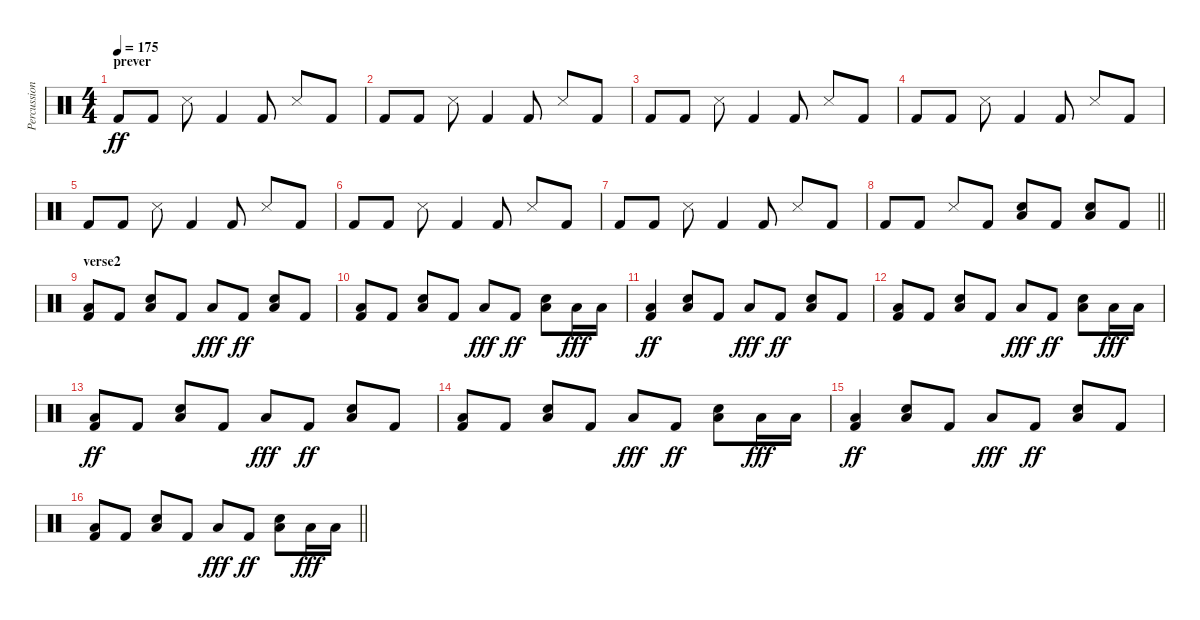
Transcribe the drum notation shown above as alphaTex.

\track ("Percussion" "Percussion") {instrument percussion}
\staff {score}
\articulation defaults
\ts (4 4)
\section ("" "prever")
\tempo 175
\clef neutral
\ks c "Kick (hit) 2".8{dy ff} "Kick (hit) 2".8 "Snare (side stick) 3".8 "Kick (hit) 2".4 "Kick (hit) 2".8 "Snare (side stick) 3".8 "Kick (hit) 2".8
|
"Kick (hit) 2".8 "Kick (hit) 2".8 "Snare (side stick) 3".8 "Kick (hit) 2".4 "Kick (hit) 2".8 "Snare (side stick) 3".8 "Kick (hit) 2".8 |
"Kick (hit) 2".8 "Kick (hit) 2".8 "Snare (side stick) 3".8 "Kick (hit) 2".4 "Kick (hit) 2".8 "Snare (side stick) 3".8 "Kick (hit) 2".8 |
"Kick (hit) 2".8 "Kick (hit) 2".8 "Snare (side stick) 3".8 "Kick (hit) 2".4 "Kick (hit) 2".8 "Snare (side stick) 3".8 "Kick (hit) 2".8 |
"Kick (hit) 2".8 "Kick (hit) 2".8 "Snare (side stick) 3".8 "Kick (hit) 2".4 "Kick (hit) 2".8 "Snare (side stick) 3".8 "Kick (hit) 2".8 |
"Kick (hit) 2".8 "Kick (hit) 2".8 "Snare (side stick) 3".8 "Kick (hit) 2".4 "Kick (hit) 2".8 "Snare (side stick) 3".8 "Kick (hit) 2".8 |
"Kick (hit) 2".8 "Kick (hit) 2".8 "Snare (side stick) 3".8 "Kick (hit) 2".4 "Kick (hit) 2".8 "Snare (side stick) 3".8 "Kick (hit) 2".8 |
\barLineRight lightlight "Kick (hit) 2".8 "Kick (hit) 2".8 "Snare (side stick) 3".8 "Kick (hit) 2".8
("Low Tom (hit)" "Snare (hit) 2").8 "Kick (hit) 2".8 ("Low Tom (hit)" "Snare (hit) 2").8 "Kick (hit) 2".8 |
\section ("" "verse2")
("Low Tom (hit)" "Kick (hit) 2").8 "Kick (hit) 2".8 ("Low Tom (hit)" "Snare (hit) 2").8 "Kick (hit) 2".8 "Low Tom (hit)".8{dy fff} "Kick (hit) 2".8{dy ff} ("Low Tom (hit)" "Snare (hit) 2").8 "Kick (hit) 2".8 |
("Low Tom (hit)" "Kick (hit) 2").8 "Kick (hit) 2".8 ("Low Tom (hit)" "Snare (hit) 2").8 "Kick (hit) 2".8 "Low Tom (hit)".8{dy fff} "Kick (hit) 2".8{dy ff} ("Low Tom (hit)" "Snare (hit) 2").8 "Low Tom (hit)".16{dy fff} "Low Tom (hit)".16 |
("Low Tom (hit)" "Kick (hit) 2").4{dy ff} ("Low Tom (hit)" "Snare (hit) 2").8 "Kick (hit) 2".8 "Low Tom (hit)".8{dy fff} "Kick (hit) 2".8{dy ff} ("Low Tom (hit)" "Snare (hit) 2").8 "Kick (hit) 2".8 |
("Low Tom (hit)" "Kick (hit) 2").8 "Kick (hit) 2".8 ("Low Tom (hit)" "Snare (hit) 2").8 "Kick (hit) 2".8 "Low Tom (hit)".8{dy fff} "Kick (hit) 2".8{dy ff} ("Low Tom (hit)" "Snare (hit) 2").8 "Low Tom (hit)".16{dy fff} "Low Tom (hit)".16 |
("Low Tom (hit)" "Kick (hit) 2").8{dy ff} "Kick (hit) 2".8 ("Low Tom (hit)" "Snare (hit) 2").8 "Kick (hit) 2".8 "Low Tom (hit)".8{dy fff} "Kick (hit) 2".8{dy ff} ("Low Tom (hit)" "Snare (hit) 2").8 "Kick (hit) 2".8 |
("Low Tom (hit)" "Kick (hit) 2").8 "Kick (hit) 2".8 ("Low Tom (hit)" "Snare (hit) 2").8 "Kick (hit) 2".8 "Low Tom (hit)".8{dy fff} "Kick (hit) 2".8{dy ff} ("Low Tom (hit)" "Snare (hit) 2").8 "Low Tom (hit)".16{dy fff} "Low Tom (hit)".16 |
("Low Tom (hit)" "Kick (hit) 2").4{dy ff} ("Low Tom (hit)" "Snare (hit) 2").8 "Kick (hit) 2".8 "Low Tom (hit)".8{dy fff} "Kick (hit) 2".8{dy ff} ("Low Tom (hit)" "Snare (hit) 2").8 "Kick (hit) 2".8 |
\barLineRight lightlight
("Low Tom (hit)" "Kick (hit) 2").8 "Kick (hit) 2".8 ("Low Tom (hit)" "Snare (hit) 2").8 "Kick (hit) 2".8 "Low Tom (hit)".8{dy fff} "Kick (hit) 2".8{dy ff} ("Low Tom (hit)" "Snare (hit) 2").8 "Low Tom (hit)".16{dy fff} "Low Tom (hit)".16
